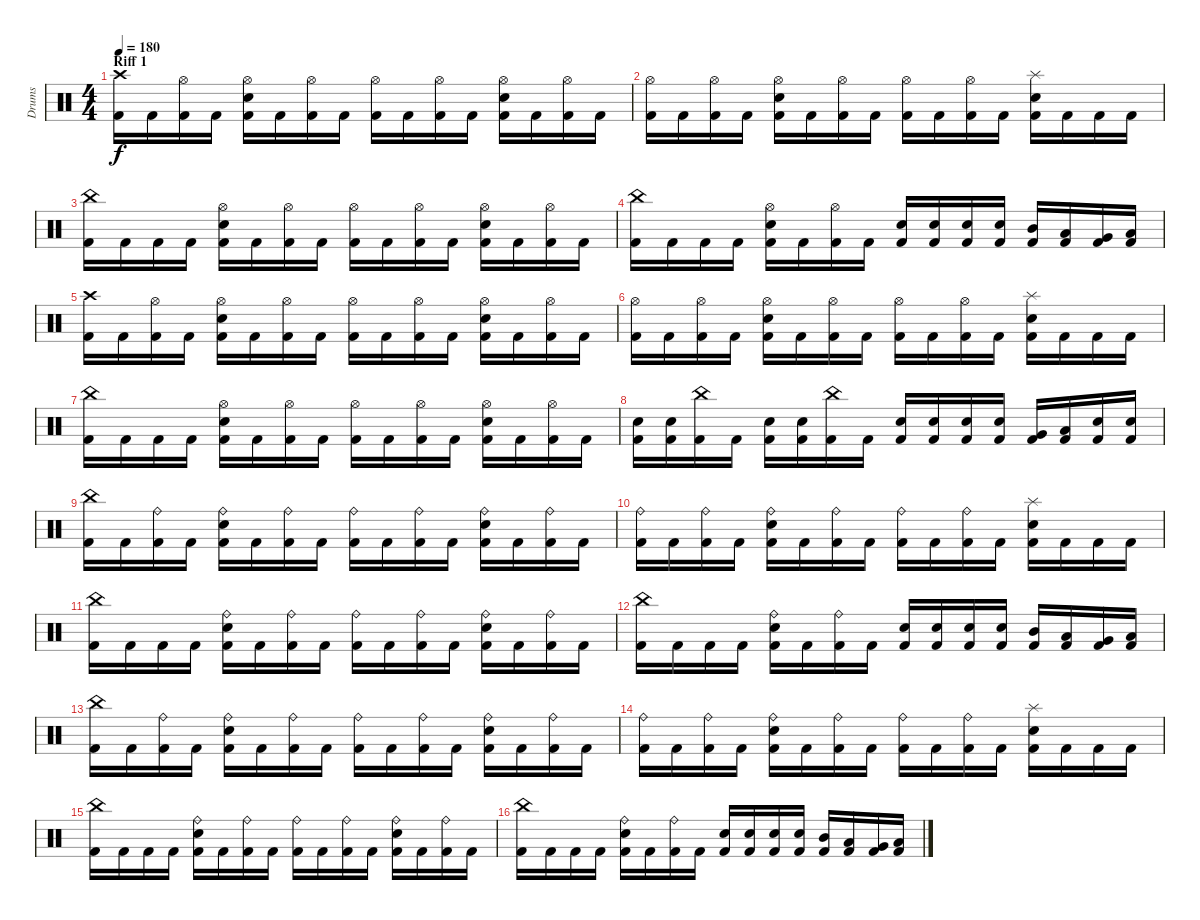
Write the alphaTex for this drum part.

\track ("Drums" "Drums") {instrument percussion}
\staff {score}
\articulation defaults
\ts (4 4)
\section ("" "Riff 1")
\tempo 180
\clef neutral
\ks c
("Kick (hit) 2" "Crash high (hit)").16{dy f} "Kick (hit) 2".16 ("Kick (hit) 2" "Hi-Hat (open)").16 "Kick (hit) 2".16 ("Kick (hit) 2" "Snare (hit) 2" "Hi-Hat (open)").16 "Kick (hit) 2".16 ("Kick (hit) 2" "Hi-Hat (open)").16 "Kick (hit) 2".16 ("Kick (hit) 2" "Hi-Hat (open)").16 "Kick (hit) 2".16 ("Kick (hit) 2" "Hi-Hat (open)").16 "Kick (hit) 2".16 ("Kick (hit) 2" "Snare (hit) 2" "Hi-Hat (open)").16 "Kick (hit) 2".16 ("Kick (hit) 2" "Hi-Hat (open)").16 "Kick (hit) 2".16 |
("Kick (hit) 2" "Hi-Hat (open)").16 "Kick (hit) 2".16 ("Kick (hit) 2" "Hi-Hat (open)").16 "Kick (hit) 2".16 ("Kick (hit) 2" "Snare (hit) 2" "Hi-Hat (open)").16 "Kick (hit) 2".16 ("Kick (hit) 2" "Hi-Hat (open)").16 "Kick (hit) 2".16 ("Kick (hit) 2" "Hi-Hat (open)").16 "Kick (hit) 2".16 ("Kick (hit) 2" "Hi-Hat (open)").16 "Kick (hit) 2".16 ("Kick (hit) 2" "Snare (hit) 2" "Splash (hit)").16 "Kick (hit) 2".16 "Kick (hit) 2".16 "Kick (hit) 2".16 |
("Kick (hit) 2" "China (hit)").16 "Kick (hit) 2".16 "Kick (hit) 2".16 "Kick (hit) 2".16 ("Kick (hit) 2" "Snare (hit) 2" "Hi-Hat (open)").16 "Kick (hit) 2".16 ("Kick (hit) 2" "Hi-Hat (open)").16 "Kick (hit) 2".16 ("Kick (hit) 2" "Hi-Hat (open)").16 "Kick (hit) 2".16 ("Kick (hit) 2" "Hi-Hat (open)").16 "Kick (hit) 2".16 ("Kick (hit) 2" "Snare (hit) 2" "Hi-Hat (open)").16 "Kick (hit) 2".16 ("Kick (hit) 2" "Hi-Hat (open)").16 "Kick (hit) 2".16 |
("Kick (hit) 2" "China (hit)").16 "Kick (hit) 2".16 "Kick (hit) 2".16 "Kick (hit) 2".16 ("Kick (hit) 2" "Snare (hit) 2" "Hi-Hat (open)").16 "Kick (hit) 2".16 ("Kick (hit) 2" "Hi-Hat (open)").16 "Kick (hit) 2".16 ("Kick (hit) 2" "Snare (hit) 2").16 ("Kick (hit) 2" "Snare (hit) 2").16 ("Kick (hit) 2" "Snare (hit) 2").16 ("Kick (hit) 2" "Snare (hit) 2").16 ("Kick (hit) 2" "Mid Tom (hit)").16 ("Kick (hit) 2" "Low Tom (hit)").16 ("Kick (hit) 2" "Very Low Tom (hit)").16 ("Kick (hit) 2" "Low Floor Tom (hit)").16 |
("Kick (hit) 2" "Crash high (hit)").16 "Kick (hit) 2".16 ("Kick (hit) 2" "Hi-Hat (open)").16 "Kick (hit) 2".16 ("Kick (hit) 2" "Snare (hit) 2" "Hi-Hat (open)").16 "Kick (hit) 2".16 ("Kick (hit) 2" "Hi-Hat (open)").16 "Kick (hit) 2".16 ("Kick (hit) 2" "Hi-Hat (open)").16 "Kick (hit) 2".16 ("Kick (hit) 2" "Hi-Hat (open)").16 "Kick (hit) 2".16 ("Kick (hit) 2" "Snare (hit) 2" "Hi-Hat (open)").16 "Kick (hit) 2".16 ("Kick (hit) 2" "Hi-Hat (open)").16 "Kick (hit) 2".16 |
("Kick (hit) 2" "Hi-Hat (open)").16 "Kick (hit) 2".16 ("Kick (hit) 2" "Hi-Hat (open)").16 "Kick (hit) 2".16 ("Kick (hit) 2" "Snare (hit) 2" "Hi-Hat (open)").16 "Kick (hit) 2".16 ("Kick (hit) 2" "Hi-Hat (open)").16 "Kick (hit) 2".16 ("Kick (hit) 2" "Hi-Hat (open)").16 "Kick (hit) 2".16 ("Kick (hit) 2" "Hi-Hat (open)").16 "Kick (hit) 2".16 ("Kick (hit) 2" "Snare (hit) 2" "Splash (hit)").16 "Kick (hit) 2".16 "Kick (hit) 2".16 "Kick (hit) 2".16 |
("Kick (hit) 2" "China (hit)").16 "Kick (hit) 2".16 "Kick (hit) 2".16 "Kick (hit) 2".16 ("Kick (hit) 2" "Snare (hit) 2" "Hi-Hat (open)").16 "Kick (hit) 2".16 ("Kick (hit) 2" "Hi-Hat (open)").16 "Kick (hit) 2".16 ("Kick (hit) 2" "Hi-Hat (open)").16 "Kick (hit) 2".16 ("Kick (hit) 2" "Hi-Hat (open)").16 "Kick (hit) 2".16 ("Kick (hit) 2" "Snare (hit) 2" "Hi-Hat (open)").16 "Kick (hit) 2".16 ("Kick (hit) 2" "Hi-Hat (open)").16 "Kick (hit) 2".16 |
("Kick (hit) 2" "Snare (hit) 2").16 ("Kick (hit) 2" "Snare (hit) 2").16 ("Kick (hit) 2" "China (hit)").16 "Kick (hit) 2".16 ("Kick (hit) 2" "Snare (hit) 2").16 ("Kick (hit) 2" "Snare (hit) 2").16 ("Kick (hit) 2" "China (hit)").16 "Kick (hit) 2".16 ("Kick (hit) 2" "Snare (hit) 2").16 ("Kick (hit) 2" "Snare (hit) 2").16 ("Kick (hit) 2" "Snare (hit) 2").16 ("Kick (hit) 2" "Snare (hit) 2").16 ("Kick (hit) 2" "Very Low Tom (hit)").16 ("Kick (hit) 2" "Low Tom (hit)").16 ("Kick (hit) 2" "Snare (hit) 2").16 ("Kick (hit) 2" "Snare (hit) 2").16 |
("Kick (hit) 2" "China (hit)").16 "Kick (hit) 2".16 ("Kick (hit) 2" "Ride (bell)").16 "Kick (hit) 2".16 ("Kick (hit) 2" "Snare (hit) 2" "Ride (bell)").16 "Kick (hit) 2".16 ("Kick (hit) 2" "Ride (bell)").16 "Kick (hit) 2".16 ("Kick (hit) 2" "Ride (bell)").16 "Kick (hit) 2".16 ("Kick (hit) 2" "Ride (bell)").16 "Kick (hit) 2".16 ("Kick (hit) 2" "Snare (hit) 2" "Ride (bell)").16 "Kick (hit) 2".16 ("Kick (hit) 2" "Ride (bell)").16 "Kick (hit) 2".16 |
("Kick (hit) 2" "Ride (bell)").16 "Kick (hit) 2".16 ("Kick (hit) 2" "Ride (bell)").16 "Kick (hit) 2".16 ("Kick (hit) 2" "Snare (hit) 2" "Ride (bell)").16 "Kick (hit) 2".16 ("Kick (hit) 2" "Ride (bell)").16 "Kick (hit) 2".16 ("Kick (hit) 2" "Ride (bell)").16 "Kick (hit) 2".16 ("Kick (hit) 2" "Ride (bell)").16 "Kick (hit) 2".16 ("Kick (hit) 2" "Snare (hit) 2" "Splash (hit)").16 "Kick (hit) 2".16 "Kick (hit) 2".16 "Kick (hit) 2".16 |
("Kick (hit) 2" "China (hit)").16 "Kick (hit) 2".16 "Kick (hit) 2".16 "Kick (hit) 2".16 ("Kick (hit) 2" "Snare (hit) 2" "Ride (bell)").16 "Kick (hit) 2".16 ("Kick (hit) 2" "Ride (bell)").16 "Kick (hit) 2".16 ("Kick (hit) 2" "Ride (bell)").16 "Kick (hit) 2".16 ("Kick (hit) 2" "Ride (bell)").16 "Kick (hit) 2".16 ("Kick (hit) 2" "Snare (hit) 2" "Ride (bell)").16 "Kick (hit) 2".16 ("Kick (hit) 2" "Ride (bell)").16 "Kick (hit) 2".16 |
("Kick (hit) 2" "China (hit)").16 "Kick (hit) 2".16 "Kick (hit) 2".16 "Kick (hit) 2".16 ("Kick (hit) 2" "Snare (hit) 2" "Ride (bell)").16 "Kick (hit) 2".16 ("Kick (hit) 2" "Ride (bell)").16 "Kick (hit) 2".16 ("Kick (hit) 2" "Snare (hit) 2").16 ("Kick (hit) 2" "Snare (hit) 2").16 ("Kick (hit) 2" "Snare (hit) 2").16 ("Kick (hit) 2" "Snare (hit) 2").16 ("Kick (hit) 2" "Mid Tom (hit)").16 ("Kick (hit) 2" "Low Tom (hit)").16 ("Kick (hit) 2" "Very Low Tom (hit)").16 ("Kick (hit) 2" "Low Floor Tom (hit)").16 |
("Kick (hit) 2" "China (hit)").16 "Kick (hit) 2".16 ("Kick (hit) 2" "Ride (bell)").16 "Kick (hit) 2".16 ("Kick (hit) 2" "Snare (hit) 2" "Ride (bell)").16 "Kick (hit) 2".16 ("Kick (hit) 2" "Ride (bell)").16 "Kick (hit) 2".16 ("Kick (hit) 2" "Ride (bell)").16 "Kick (hit) 2".16 ("Kick (hit) 2" "Ride (bell)").16 "Kick (hit) 2".16 ("Kick (hit) 2" "Snare (hit) 2" "Ride (bell)").16 "Kick (hit) 2".16 ("Kick (hit) 2" "Ride (bell)").16 "Kick (hit) 2".16 |
("Kick (hit) 2" "Ride (bell)").16 "Kick (hit) 2".16 ("Kick (hit) 2" "Ride (bell)").16 "Kick (hit) 2".16 ("Kick (hit) 2" "Snare (hit) 2" "Ride (bell)").16 "Kick (hit) 2".16 ("Kick (hit) 2" "Ride (bell)").16 "Kick (hit) 2".16 ("Kick (hit) 2" "Ride (bell)").16 "Kick (hit) 2".16 ("Kick (hit) 2" "Ride (bell)").16 "Kick (hit) 2".16 ("Kick (hit) 2" "Snare (hit) 2" "Splash (hit)").16 "Kick (hit) 2".16 "Kick (hit) 2".16 "Kick (hit) 2".16 |
("Kick (hit) 2" "China (hit)").16 "Kick (hit) 2".16 "Kick (hit) 2".16 "Kick (hit) 2".16 ("Kick (hit) 2" "Snare (hit) 2" "Ride (bell)").16 "Kick (hit) 2".16 ("Kick (hit) 2" "Ride (bell)").16 "Kick (hit) 2".16 ("Kick (hit) 2" "Ride (bell)").16 "Kick (hit) 2".16 ("Kick (hit) 2" "Ride (bell)").16 "Kick (hit) 2".16 ("Kick (hit) 2" "Snare (hit) 2" "Ride (bell)").16 "Kick (hit) 2".16 ("Kick (hit) 2" "Ride (bell)").16 "Kick (hit) 2".16 |
("Kick (hit) 2" "China (hit)").16 "Kick (hit) 2".16 "Kick (hit) 2".16 "Kick (hit) 2".16 ("Kick (hit) 2" "Snare (hit) 2" "Ride (bell)").16 "Kick (hit) 2".16 ("Kick (hit) 2" "Ride (bell)").16 "Kick (hit) 2".16 ("Kick (hit) 2" "Snare (hit) 2").16 ("Kick (hit) 2" "Snare (hit) 2").16 ("Kick (hit) 2" "Snare (hit) 2").16 ("Kick (hit) 2" "Snare (hit) 2").16 ("Kick (hit) 2" "Mid Tom (hit)").16 ("Kick (hit) 2" "Low Tom (hit)").16 ("Kick (hit) 2" "Very Low Tom (hit)").16 ("Kick (hit) 2" "Low Floor Tom (hit)").16
